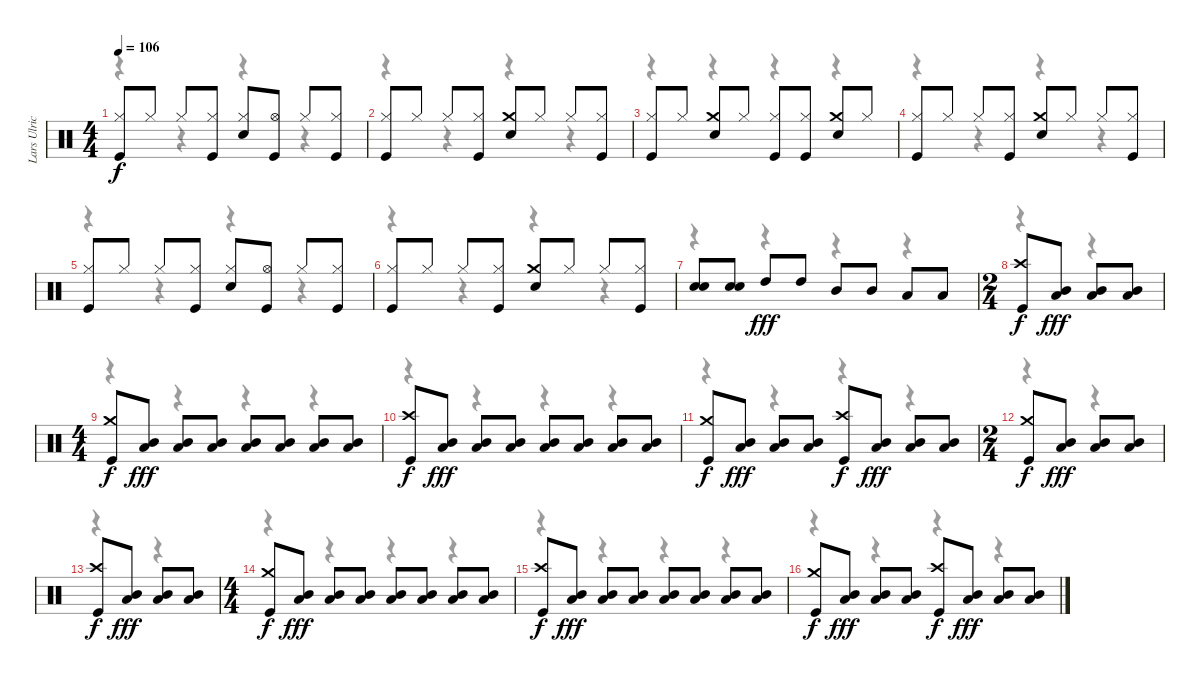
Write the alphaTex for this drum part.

\track ("Lars Ulrich" "Lars Ulric") {instrument percussion}
\staff {score}
\articulation defaults
\voice
\ts (4 4)
\tempo 106
\clef neutral
\ks c
("Hi-Hat (closed)" "Kick (hit)").8{dy f} "Hi-Hat (closed)".8 "Hi-Hat (closed)".8 ("Hi-Hat (closed)" "Kick (hit)").8 ("Hi-Hat (closed)" "Snare (hit) 2").8 ("Hi-Hat (open)" "Kick (hit)").8 "Hi-Hat (closed)".8 ("Hi-Hat (closed)" "Kick (hit)").8 |
("Hi-Hat (closed)" "Kick (hit)").8 "Hi-Hat (closed)".8 "Hi-Hat (closed)".8 ("Hi-Hat (closed)" "Kick (hit)").8 ("Crash medium (hit)" "Snare (hit) 2").8 "Hi-Hat (closed)".8 "Hi-Hat (closed)".8 ("Hi-Hat (closed)" "Kick (hit)").8 |
("Hi-Hat (closed)" "Kick (hit)").8 "Hi-Hat (closed)".8 ("Crash medium (hit)" "Snare (hit) 2").8 "Hi-Hat (closed)".8 ("Hi-Hat (closed)" "Kick (hit)").8 ("Hi-Hat (closed)" "Kick (hit)").8 ("Crash medium (hit)" "Snare (hit) 2").8 "Hi-Hat (closed)".8 |
("Hi-Hat (closed)" "Kick (hit)").8 "Hi-Hat (closed)".8 "Hi-Hat (closed)".8 ("Hi-Hat (closed)" "Kick (hit)").8 ("Crash medium (hit)" "Snare (hit) 2").8 "Hi-Hat (closed)".8 "Hi-Hat (closed)".8 ("Hi-Hat (closed)" "Kick (hit)").8 |
("Hi-Hat (closed)" "Kick (hit)").8 "Hi-Hat (closed)".8 "Hi-Hat (closed)".8 ("Hi-Hat (closed)" "Kick (hit)").8 ("Hi-Hat (closed)" "Snare (hit) 2").8 ("Hi-Hat (open)" "Kick (hit)").8 "Hi-Hat (closed)".8 ("Hi-Hat (closed)" "Kick (hit)").8 |
("Hi-Hat (closed)" "Kick (hit)").8 "Hi-Hat (closed)".8 "Hi-Hat (closed)".8 ("Hi-Hat (closed)" "Kick (hit)").8 ("Crash medium (hit)" "Snare (hit) 2").8 "Hi-Hat (closed)".8 "Hi-Hat (closed)".8 ("Hi-Hat (closed)" "Kick (hit)").8 |
("Snare (hit) 2" "Snare (hit) 2").8 ("Snare (hit) 2" "Snare (hit) 2").8 "High Tom (hit)".8{dy fff} "High Tom (hit)".8 "Mid Tom (hit)".8 "Mid Tom (hit)".8 "Low Tom (hit)".8 "Low Tom (hit)".8 |
\ts (2 4)
("Crash high (hit)" "Kick (hit)").8{dy f} ("Mid Tom (hit)" "Low Tom (hit)").8{dy fff} ("Mid Tom (hit)" "Low Tom (hit)").8 ("Mid Tom (hit)" "Low Tom (hit)").8 |
\ts (4 4)
("Crash medium (hit)" "Kick (hit)").8{dy f} ("Mid Tom (hit)" "Low Tom (hit)").8{dy fff} ("Mid Tom (hit)" "Low Tom (hit)").8 ("Mid Tom (hit)" "Low Tom (hit)").8 ("Mid Tom (hit)" "Low Tom (hit)").8 ("Mid Tom (hit)" "Low Tom (hit)").8 ("Mid Tom (hit)" "Low Tom (hit)").8 ("Mid Tom (hit)" "Low Tom (hit)").8 |
("Crash high (hit)" "Kick (hit)").8{dy f} ("Mid Tom (hit)" "Low Tom (hit)").8{dy fff} ("Mid Tom (hit)" "Low Tom (hit)").8 ("Mid Tom (hit)" "Low Tom (hit)").8 ("Mid Tom (hit)" "Low Tom (hit)").8 ("Mid Tom (hit)" "Low Tom (hit)").8 ("Mid Tom (hit)" "Low Tom (hit)").8 ("Mid Tom (hit)" "Low Tom (hit)").8 |
("Crash medium (hit)" "Kick (hit)").8{dy f} ("Mid Tom (hit)" "Low Tom (hit)").8{dy fff} ("Mid Tom (hit)" "Low Tom (hit)").8 ("Mid Tom (hit)" "Low Tom (hit)").8 ("Crash high (hit)" "Kick (hit)").8{dy f} ("Mid Tom (hit)" "Low Tom (hit)").8{dy fff} ("Mid Tom (hit)" "Low Tom (hit)").8 ("Mid Tom (hit)" "Low Tom (hit)").8 |
\ts (2 4)
("Crash medium (hit)" "Kick (hit)").8{dy f} ("Mid Tom (hit)" "Low Tom (hit)").8{dy fff} ("Mid Tom (hit)" "Low Tom (hit)").8 ("Mid Tom (hit)" "Low Tom (hit)").8 |
("Crash high (hit)" "Kick (hit)").8{dy f} ("Mid Tom (hit)" "Low Tom (hit)").8{dy fff} ("Mid Tom (hit)" "Low Tom (hit)").8 ("Mid Tom (hit)" "Low Tom (hit)").8 |
\ts (4 4)
("Crash medium (hit)" "Kick (hit)").8{dy f} ("Mid Tom (hit)" "Low Tom (hit)").8{dy fff} ("Mid Tom (hit)" "Low Tom (hit)").8 ("Mid Tom (hit)" "Low Tom (hit)").8 ("Mid Tom (hit)" "Low Tom (hit)").8 ("Mid Tom (hit)" "Low Tom (hit)").8 ("Mid Tom (hit)" "Low Tom (hit)").8 ("Mid Tom (hit)" "Low Tom (hit)").8 |
("Crash high (hit)" "Kick (hit)").8{dy f} ("Mid Tom (hit)" "Low Tom (hit)").8{dy fff} ("Mid Tom (hit)" "Low Tom (hit)").8 ("Mid Tom (hit)" "Low Tom (hit)").8 ("Mid Tom (hit)" "Low Tom (hit)").8 ("Mid Tom (hit)" "Low Tom (hit)").8 ("Mid Tom (hit)" "Low Tom (hit)").8 ("Mid Tom (hit)" "Low Tom (hit)").8 |
("Crash medium (hit)" "Kick (hit)").8{dy f} ("Mid Tom (hit)" "Low Tom (hit)").8{dy fff} ("Mid Tom (hit)" "Low Tom (hit)").8 ("Mid Tom (hit)" "Low Tom (hit)").8 ("Crash high (hit)" "Kick (hit)").8{dy f} ("Mid Tom (hit)" "Low Tom (hit)").8{dy fff} ("Mid Tom (hit)" "Low Tom (hit)").8 ("Mid Tom (hit)" "Low Tom (hit)").8
\voice
\clef neutral
\ottava regular
\simile none
\ks c
r.4{dy f} r.4 r.4 r.4 |
r.4 r.4 r.4 r.4 |
r.4 r.4 r.4 r.4 |
r.4 r.4 r.4 r.4 |
r.4 r.4 r.4 r.4 |
r.4 r.4 r.4 r.4 |
r.4 r.4 r.4 r.4 |
r.4 r.4 |
r.4 r.4 r.4 r.4 |
r.4 r.4 r.4 r.4 |
r.4 r.4 r.4 r.4 |
r.4 r.4 |
r.4 r.4 |
r.4 r.4 r.4 r.4 |
r.4 r.4 r.4 r.4 |
r.4 r.4 r.4 r.4
